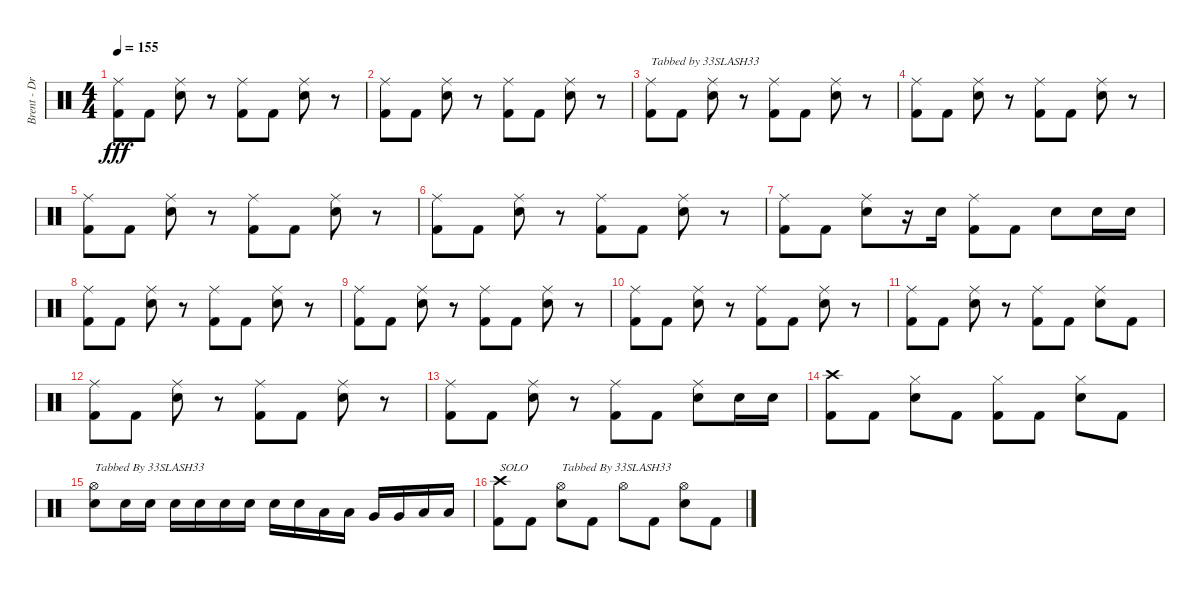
\track ("Brent - Drums" "Brent - Dr") {instrument percussion}
\staff {score}
\articulation defaults
\ts (4 4)
\tempo 155
\clef neutral
\ks c
("Ride (middle)" "Kick (hit) 2").8{dy fff} "Kick (hit) 2".8 ("Ride (middle)" "Snare (hit) 2").8 r.8 ("Ride (middle)" "Kick (hit) 2").8 "Kick (hit) 2".8 ("Ride (middle)" "Snare (hit) 2").8 r.8 |
("Ride (middle)" "Kick (hit) 2").8 "Kick (hit) 2".8 ("Ride (middle)" "Snare (hit) 2").8 r.8 ("Ride (middle)" "Kick (hit) 2").8 "Kick (hit) 2".8 ("Ride (middle)" "Snare (hit) 2").8 r.8 |
("Ride (middle)" "Kick (hit) 2").8{txt "Tabbed by 33SLASH33"} "Kick (hit) 2".8 ("Ride (middle)" "Snare (hit) 2").8 r.8 ("Ride (middle)" "Kick (hit) 2").8 "Kick (hit) 2".8 ("Ride (middle)" "Snare (hit) 2").8 r.8 |
("Ride (middle)" "Kick (hit) 2").8 "Kick (hit) 2".8 ("Ride (middle)" "Snare (hit) 2").8 r.8 ("Ride (middle)" "Kick (hit) 2").8 "Kick (hit) 2".8 ("Ride (middle)" "Snare (hit) 2").8 r.8 |
("Ride (middle)" "Kick (hit) 2").8 "Kick (hit) 2".8 ("Ride (middle)" "Snare (hit) 2").8 r.8 ("Ride (middle)" "Kick (hit) 2").8 "Kick (hit) 2".8 ("Ride (middle)" "Snare (hit) 2").8 r.8 |
("Ride (middle)" "Kick (hit) 2").8 "Kick (hit) 2".8 ("Ride (middle)" "Snare (hit) 2").8 r.8 ("Ride (middle)" "Kick (hit) 2").8 "Kick (hit) 2".8 ("Ride (middle)" "Snare (hit) 2").8 r.8 |
("Ride (middle)" "Kick (hit) 2").8 "Kick (hit) 2".8 ("Ride (middle)" "Snare (hit) 2").8 r.16 "Snare (hit) 2".16 ("Ride (middle)" "Kick (hit) 2").8 "Kick (hit) 2".8 "Snare (hit) 2".8 "Snare (hit) 2".16 "Snare (hit) 2".16 |
("Ride (middle)" "Kick (hit) 2").8 "Kick (hit) 2".8 ("Ride (middle)" "Snare (hit) 2").8 r.8 ("Ride (middle)" "Kick (hit) 2").8 "Kick (hit) 2".8 ("Ride (middle)" "Snare (hit) 2").8 r.8 |
("Ride (middle)" "Kick (hit) 2").8 "Kick (hit) 2".8 ("Ride (middle)" "Snare (hit) 2").8 r.8 ("Ride (middle)" "Kick (hit) 2").8 "Kick (hit) 2".8 ("Ride (middle)" "Snare (hit) 2").8 r.8 |
("Ride (middle)" "Kick (hit) 2").8 "Kick (hit) 2".8 ("Ride (middle)" "Snare (hit) 2").8 r.8 ("Ride (middle)" "Kick (hit) 2").8 "Kick (hit) 2".8 ("Ride (middle)" "Snare (hit) 2").8 r.8 |
("Ride (middle)" "Kick (hit) 2").8 "Kick (hit) 2".8 ("Ride (middle)" "Snare (hit) 2").8 r.8 ("Ride (middle)" "Kick (hit) 2").8 "Kick (hit) 2".8 ("Ride (middle)" "Snare (hit) 2").8 "Kick (hit) 2".8 |
("Ride (middle)" "Kick (hit) 2").8 "Kick (hit) 2".8 ("Ride (middle)" "Snare (hit) 2").8 r.8 ("Ride (middle)" "Kick (hit) 2").8 "Kick (hit) 2".8 ("Ride (middle)" "Snare (hit) 2").8 r.8 |
("Ride (middle)" "Kick (hit) 2").8 "Kick (hit) 2".8 ("Ride (middle)" "Snare (hit) 2").8 r.8 ("Ride (middle)" "Kick (hit) 2").8 "Kick (hit) 2".8 ("Ride (middle)" "Snare (hit) 2").8 "Snare (hit) 2".16 "Snare (hit) 2".16 |
("Crash high (hit)" "Kick (hit) 2").8 "Kick (hit) 2".8 ("Hi-Hat (closed)" "Snare (hit) 2").8 "Kick (hit) 2".8 ("Hi-Hat (closed)" "Kick (hit) 2").8 "Kick (hit) 2".8 ("Hi-Hat (closed)" "Snare (hit) 2").8 "Kick (hit) 2".8 |
("Hi-Hat (open)" "Snare (hit) 2").8{txt "Tabbed By 33SLASH33"} "Snare (hit) 2".16 "Snare (hit) 2".16 "Snare (hit) 2".16 "Snare (hit) 2".16 "Snare (hit) 2".16 "Snare (hit) 2".16 "Snare (hit) 2".16 "Snare (hit) 2".16 "Low Tom (hit)".16 "Low Tom (hit)".16 "Very Low Tom (hit)".16 "Very Low Tom (hit)".16 "Low Floor Tom (hit)".16 "Low Floor Tom (hit)".16 |
("Crash high (hit)" "Kick (hit) 2").8{txt "SOLO"} "Kick (hit) 2".8 ("Hi-Hat (open)" "Snare (hit) 2").8{txt "Tabbed By 33SLASH33"} "Kick (hit) 2".8 "Hi-Hat (open)".8 "Kick (hit) 2".8 ("Hi-Hat (open)" "Snare (hit) 2").8 "Kick (hit) 2".8
